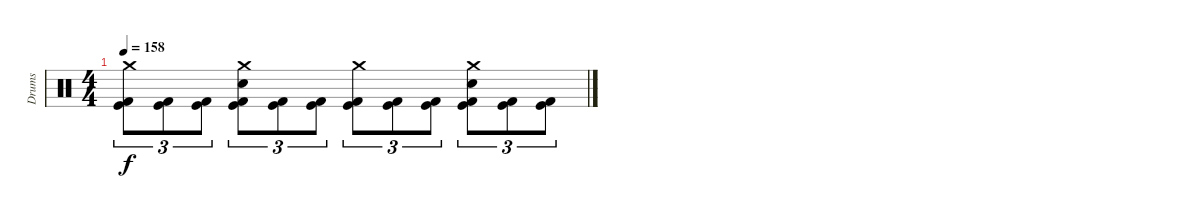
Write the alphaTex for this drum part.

\track ("Drums" "Drums") {instrument percussion}
\staff {score}
\articulation defaults
\ts (4 4)
\tempo 158
\clef neutral
\ks c
("Crash medium (hit)" "Kick (hit)" "Kick (hit) 2").8{tu (3 2) dy f} ("Kick (hit)" "Kick (hit) 2").8{tu (3 2)} ("Kick (hit)" "Kick (hit) 2").8{tu (3 2)} ("Crash medium (hit)" "Snare (hit) 2" "Kick (hit)" "Kick (hit) 2").8{tu (3 2)} ("Kick (hit)" "Kick (hit) 2").8{tu (3 2)} ("Kick (hit)" "Kick (hit) 2").8{tu (3 2)} ("Crash medium (hit)" "Kick (hit)" "Kick (hit) 2").8{tu (3 2)} ("Kick (hit)" "Kick (hit) 2").8{tu (3 2)} ("Kick (hit)" "Kick (hit) 2").8{tu (3 2)} ("Crash medium (hit)" "Snare (hit) 2" "Kick (hit)" "Kick (hit) 2").8{tu (3 2)} ("Kick (hit)" "Kick (hit) 2").8{tu (3 2)} ("Kick (hit)" "Kick (hit) 2").8{tu (3 2)}
